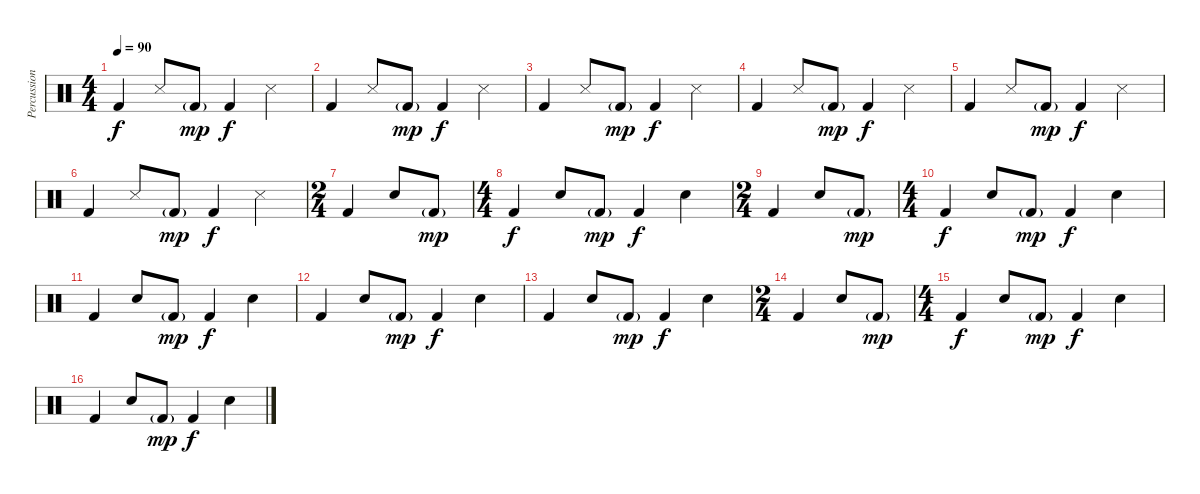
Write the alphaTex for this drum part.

\track ("Percussion" "Percussion") {instrument percussion}
\staff {score}
\articulation defaults
\ts (4 4)
\tempo 90
\clef neutral
\ks c "Kick (hit) 2".4{dy f} "Snare (side stick) 3".8 "Kick (hit) 2"{g}.8{dy mp} "Kick (hit) 2".4{dy f} "Snare (side stick) 3".4
|
"Kick (hit) 2".4 "Snare (side stick) 3".8 "Kick (hit) 2"{g}.8{dy mp} "Kick (hit) 2".4{dy f} "Snare (side stick) 3".4 |
"Kick (hit) 2".4 "Snare (side stick) 3".8 "Kick (hit) 2"{g}.8{dy mp} "Kick (hit) 2".4{dy f} "Snare (side stick) 3".4 |
"Kick (hit) 2".4 "Snare (side stick) 3".8 "Kick (hit) 2"{g}.8{dy mp} "Kick (hit) 2".4{dy f} "Snare (side stick) 3".4 |
"Kick (hit) 2".4 "Snare (side stick) 3".8 "Kick (hit) 2"{g}.8{dy mp} "Kick (hit) 2".4{dy f} "Snare (side stick) 3".4 |
"Kick (hit) 2".4 "Snare (side stick) 3".8 "Kick (hit) 2"{g}.8{dy mp} "Kick (hit) 2".4{dy f} "Snare (side stick) 3".4 |
\ts (2 4)
"Kick (hit) 2".4 "Snare (hit) 2".8 "Kick (hit) 2"{g}.8{dy mp} |
\ts (4 4)
"Kick (hit) 2".4{dy f} "Snare (hit) 2".8 "Kick (hit) 2"{g}.8{dy mp} "Kick (hit) 2".4{dy f} "Snare (hit) 2".4 |
\ts (2 4)
"Kick (hit) 2".4 "Snare (hit) 2".8 "Kick (hit) 2"{g}.8{dy mp} |
\ts (4 4)
"Kick (hit) 2".4{dy f} "Snare (hit) 2".8 "Kick (hit) 2"{g}.8{dy mp} "Kick (hit) 2".4{dy f} "Snare (hit) 2".4 |
"Kick (hit) 2".4 "Snare (hit) 2".8 "Kick (hit) 2"{g}.8{dy mp} "Kick (hit) 2".4{dy f} "Snare (hit) 2".4 |
"Kick (hit) 2".4 "Snare (hit) 2".8 "Kick (hit) 2"{g}.8{dy mp} "Kick (hit) 2".4{dy f} "Snare (hit) 2".4 |
"Kick (hit) 2".4 "Snare (hit) 2".8 "Kick (hit) 2"{g}.8{dy mp} "Kick (hit) 2".4{dy f} "Snare (hit) 2".4 |
\ts (2 4)
"Kick (hit) 2".4 "Snare (hit) 2".8 "Kick (hit) 2"{g}.8{dy mp} |
\ts (4 4)
"Kick (hit) 2".4{dy f} "Snare (hit) 2".8 "Kick (hit) 2"{g}.8{dy mp} "Kick (hit) 2".4{dy f} "Snare (hit) 2".4 |
"Kick (hit) 2".4 "Snare (hit) 2".8 "Kick (hit) 2"{g}.8{dy mp} "Kick (hit) 2".4{dy f} "Snare (hit) 2".4
